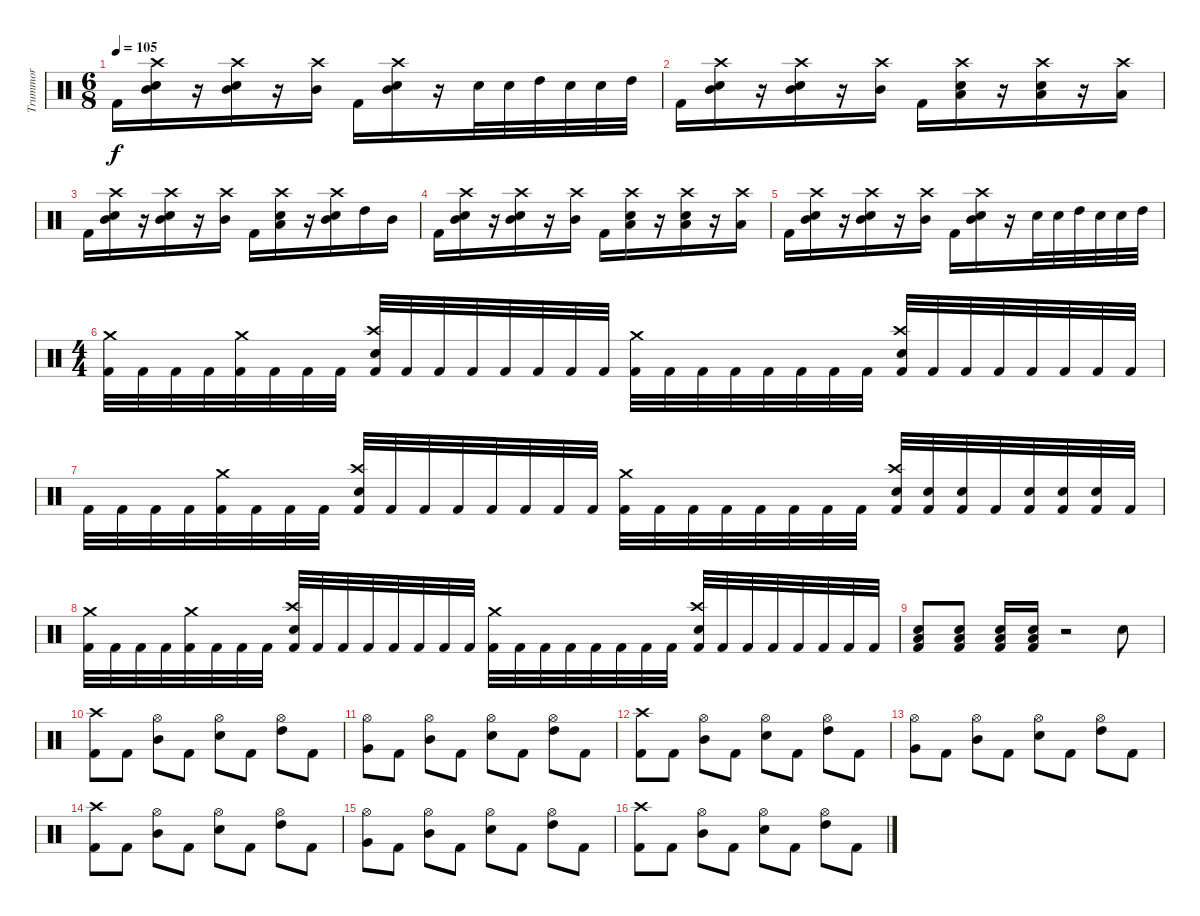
\track ("Trummor" "Trummor") {instrument percussion}
\staff {score}
\articulation defaults
\ts (6 8)
\tempo 105
\clef neutral
\ks c "Kick (hit) 2".16{dy f}
("Crash high (hit)" "Mid Tom (hit)" "Snare (hit) 2").16 r.16 ("Crash high (hit)" "Mid Tom (hit)" "Snare (hit) 2").16 r.16 ("Crash high (hit)" "Mid Tom (hit)").16 "Kick (hit) 2".16 ("Crash high (hit)" "Mid Tom (hit)" "Snare (hit) 2").16 r.16 "Snare (hit) 2".32 "Snare (hit) 2".32 "High Tom (hit)".32 "Snare (hit) 2".32 "Snare (hit) 2".32 "High Tom (hit)".32 |
"Kick (hit) 2".16 ("Crash high (hit)" "Mid Tom (hit)" "Snare (hit) 2").16 r.16 ("Crash high (hit)" "Mid Tom (hit)" "Snare (hit) 2").16 r.16 ("Crash high (hit)" "Mid Tom (hit)").16 "Kick (hit) 2".16 ("Crash high (hit)" "Low Tom (hit)" "Snare (hit) 2").16 r.16 ("Crash high (hit)" "Low Tom (hit)" "Snare (hit) 2").16 r.16 ("Crash high (hit)" "Low Tom (hit)").16 |
"Kick (hit) 2".16 ("Crash high (hit)" "Mid Tom (hit)" "Snare (hit) 2").16 r.16 ("Crash high (hit)" "Mid Tom (hit)" "Snare (hit) 2").16 r.16 ("Crash high (hit)" "Mid Tom (hit)").16 "Kick (hit) 2".16 ("Crash high (hit)" "Low Tom (hit)" "Snare (hit) 2").16 r.16 ("Crash high (hit)" "Mid Tom (hit)" "Snare (hit) 2").16 "High Tom (hit)".16 "Mid Tom (hit)".16 |
"Kick (hit) 2".16 ("Crash high (hit)" "Mid Tom (hit)" "Snare (hit) 2").16 r.16 ("Crash high (hit)" "Mid Tom (hit)" "Snare (hit) 2").16 r.16 ("Crash high (hit)" "Mid Tom (hit)").16 "Kick (hit) 2".16 ("Crash high (hit)" "Low Tom (hit)" "Snare (hit) 2").16 r.16 ("Crash high (hit)" "Low Tom (hit)" "Snare (hit) 2").16 r.16 ("Crash high (hit)" "Low Tom (hit)").16 |
"Kick (hit) 2".16 ("Crash high (hit)" "Mid Tom (hit)" "Snare (hit) 2").16 r.16 ("Crash high (hit)" "Mid Tom (hit)" "Snare (hit) 2").16 r.16 ("Crash high (hit)" "Mid Tom (hit)").16 "Kick (hit) 2".16 ("Crash high (hit)" "Mid Tom (hit)" "Snare (hit) 2").16 r.16 "Snare (hit) 2".32 "Snare (hit) 2".32 "High Tom (hit)".32 "Snare (hit) 2".32 "Snare (hit) 2".32 "High Tom (hit)".32 |
\ts (4 4)
("Crash medium (hit)" "Kick (hit) 2").32 "Kick (hit) 2".32 "Kick (hit) 2".32 "Kick (hit) 2".32 ("Crash medium (hit)" "Kick (hit) 2").32 "Kick (hit) 2".32 "Kick (hit) 2".32 "Kick (hit) 2".32 ("Crash high (hit)" "Snare (hit) 2" "Kick (hit) 2").32 "Kick (hit) 2".32 "Kick (hit) 2".32 "Kick (hit) 2".32 "Kick (hit) 2".32 "Kick (hit) 2".32 "Kick (hit) 2".32 "Kick (hit) 2".32 ("Crash medium (hit)" "Kick (hit) 2").32 "Kick (hit) 2".32 "Kick (hit) 2".32 "Kick (hit) 2".32 "Kick (hit) 2".32 "Kick (hit) 2".32 "Kick (hit) 2".32 "Kick (hit) 2".32 ("Crash high (hit)" "Snare (hit) 2" "Kick (hit) 2").32 "Kick (hit) 2".32 "Kick (hit) 2".32 "Kick (hit) 2".32 "Kick (hit) 2".32 "Kick (hit) 2".32 "Kick (hit) 2".32 "Kick (hit) 2".32 |
"Kick (hit) 2".32 "Kick (hit) 2".32 "Kick (hit) 2".32 "Kick (hit) 2".32 ("Crash medium (hit)" "Kick (hit) 2").32 "Kick (hit) 2".32 "Kick (hit) 2".32 "Kick (hit) 2".32 ("Crash high (hit)" "Snare (hit) 2" "Kick (hit) 2").32 "Kick (hit) 2".32 "Kick (hit) 2".32 "Kick (hit) 2".32 "Kick (hit) 2".32 "Kick (hit) 2".32 "Kick (hit) 2".32 "Kick (hit) 2".32 ("Crash medium (hit)" "Kick (hit) 2").32 "Kick (hit) 2".32 "Kick (hit) 2".32 "Kick (hit) 2".32 "Kick (hit) 2".32 "Kick (hit) 2".32 "Kick (hit) 2".32 "Kick (hit) 2".32 ("Crash high (hit)" "Snare (hit) 2" "Kick (hit) 2").32 ("Snare (hit) 2" "Kick (hit) 2").32 ("Snare (hit) 2" "Kick (hit) 2").32 "Kick (hit) 2".32 ("Snare (hit) 2" "Kick (hit) 2").32 ("Snare (hit) 2" "Kick (hit) 2").32 ("Snare (hit) 2" "Kick (hit) 2").32 "Kick (hit) 2".32 |
("Crash medium (hit)" "Kick (hit) 2").32 "Kick (hit) 2".32 "Kick (hit) 2".32 "Kick (hit) 2".32 ("Crash medium (hit)" "Kick (hit) 2").32 "Kick (hit) 2".32 "Kick (hit) 2".32 "Kick (hit) 2".32 ("Crash high (hit)" "Snare (hit) 2" "Kick (hit) 2").32 "Kick (hit) 2".32 "Kick (hit) 2".32 "Kick (hit) 2".32 "Kick (hit) 2".32 "Kick (hit) 2".32 "Kick (hit) 2".32 "Kick (hit) 2".32 ("Crash medium (hit)" "Kick (hit) 2").32 "Kick (hit) 2".32 "Kick (hit) 2".32 "Kick (hit) 2".32 "Kick (hit) 2".32 "Kick (hit) 2".32 "Kick (hit) 2".32 "Kick (hit) 2".32 ("Crash high (hit)" "Snare (hit) 2" "Kick (hit) 2").32 "Kick (hit) 2".32 "Kick (hit) 2".32 "Kick (hit) 2".32 "Kick (hit) 2".32 "Kick (hit) 2".32 "Kick (hit) 2".32 "Kick (hit) 2".32 |
("Snare (hit) 2" "Low Floor Tom (hit)" "Kick (hit) 2").8 ("Snare (hit) 2" "Low Floor Tom (hit)" "Kick (hit) 2").8 ("Snare (hit) 2" "Low Floor Tom (hit)" "Kick (hit) 2").16 ("Snare (hit) 2" "Low Floor Tom (hit)" "Kick (hit) 2").16 r.2 "Snare (hit) 2".8 |
("Crash high (hit)" "Kick (hit) 2").8 "Kick (hit) 2".8 ("Hi-Hat (open)" "Mid Tom (hit)").8 "Kick (hit) 2".8 ("Hi-Hat (open)" "Snare (hit) 2").8 "Kick (hit) 2".8 ("Hi-Hat (open)" "High Tom (hit)").8 "Kick (hit) 2".8 |
("Hi-Hat (open)" "Very Low Tom (hit)").8 "Kick (hit) 2".8 ("Hi-Hat (open)" "Mid Tom (hit)").8 "Kick (hit) 2".8 ("Hi-Hat (open)" "Snare (hit) 2").8 "Kick (hit) 2".8 ("Hi-Hat (open)" "High Tom (hit)").8 "Kick (hit) 2".8 |
("Crash high (hit)" "Kick (hit) 2").8 "Kick (hit) 2".8 ("Hi-Hat (open)" "Mid Tom (hit)").8 "Kick (hit) 2".8 ("Hi-Hat (open)" "Snare (hit) 2").8 "Kick (hit) 2".8 ("Hi-Hat (open)" "High Tom (hit)").8 "Kick (hit) 2".8 |
("Hi-Hat (open)" "Very Low Tom (hit)").8 "Kick (hit) 2".8 ("Hi-Hat (open)" "Mid Tom (hit)").8 "Kick (hit) 2".8 ("Hi-Hat (open)" "Snare (hit) 2").8 "Kick (hit) 2".8 ("Hi-Hat (open)" "High Tom (hit)").8 "Kick (hit) 2".8 |
("Crash high (hit)" "Kick (hit) 2").8 "Kick (hit) 2".8 ("Hi-Hat (open)" "Mid Tom (hit)").8 "Kick (hit) 2".8 ("Hi-Hat (open)" "Snare (hit) 2").8 "Kick (hit) 2".8 ("Hi-Hat (open)" "High Tom (hit)").8 "Kick (hit) 2".8 |
("Hi-Hat (open)" "Very Low Tom (hit)").8 "Kick (hit) 2".8 ("Hi-Hat (open)" "Mid Tom (hit)").8 "Kick (hit) 2".8 ("Hi-Hat (open)" "Snare (hit) 2").8 "Kick (hit) 2".8 ("Hi-Hat (open)" "High Tom (hit)").8 "Kick (hit) 2".8 |
("Crash high (hit)" "Kick (hit) 2").8 "Kick (hit) 2".8 ("Hi-Hat (open)" "Mid Tom (hit)").8 "Kick (hit) 2".8 ("Hi-Hat (open)" "Snare (hit) 2").8 "Kick (hit) 2".8 ("Hi-Hat (open)" "High Tom (hit)").8 "Kick (hit) 2".8
